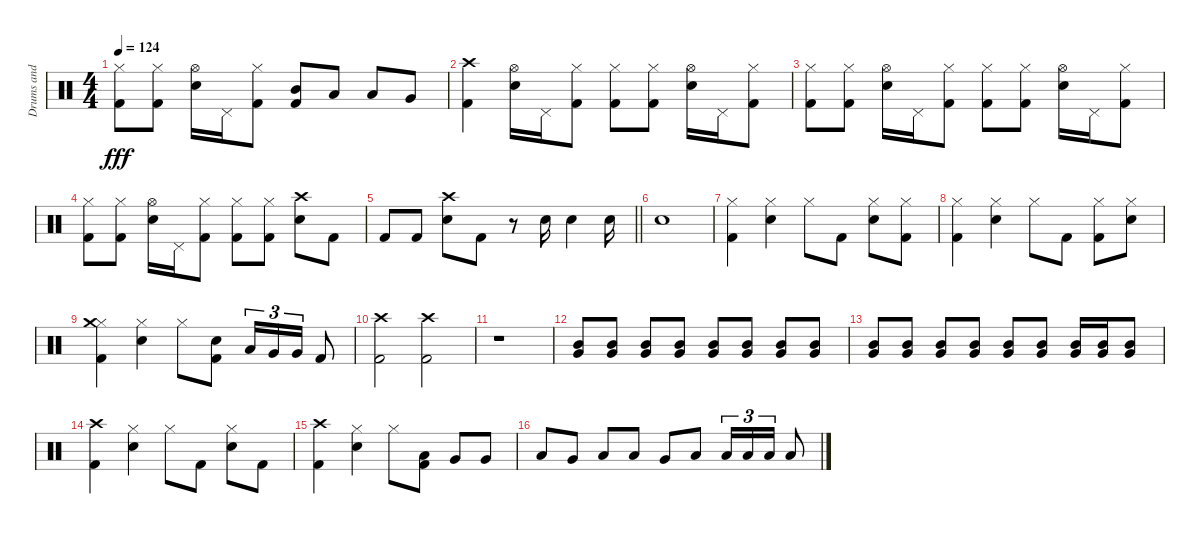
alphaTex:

\track ("Drums and percussion" "Drums and ") {instrument percussion}
\staff {score}
\articulation defaults
\ts (4 4)
\tempo 124
\clef neutral
\ks c
("Hi-Hat (closed)" "Kick (hit) 2").8{dy fff} ("Hi-Hat (closed)" "Kick (hit) 2").8 ("Hi-Hat (open)" "Snare (hit) 2").16 "Pedal Hi-Hat (hit)".16 ("Hi-Hat (closed)" "Kick (hit) 2").8 ("Mid Tom (hit)" "Kick (hit) 2").8 "Low Tom (hit)".8 "Low Tom (hit)".8 "Very Low Tom (hit)".8 |
("Crash high (hit)" "Kick (hit) 2").4 ("Hi-Hat (open)" "Snare (hit) 2").16 "Pedal Hi-Hat (hit)".16 ("Hi-Hat (closed)" "Kick (hit) 2").8 ("Hi-Hat (closed)" "Kick (hit) 2").8 ("Hi-Hat (closed)" "Kick (hit) 2").8 ("Hi-Hat (open)" "Snare (hit) 2").16 "Pedal Hi-Hat (hit)".16 ("Hi-Hat (closed)" "Kick (hit) 2").8 |
("Hi-Hat (closed)" "Kick (hit) 2").8 ("Hi-Hat (closed)" "Kick (hit) 2").8 ("Hi-Hat (open)" "Snare (hit) 2").16 "Pedal Hi-Hat (hit)".16 ("Hi-Hat (closed)" "Kick (hit) 2").8 ("Hi-Hat (closed)" "Kick (hit) 2").8 ("Hi-Hat (closed)" "Kick (hit) 2").8 ("Hi-Hat (open)" "Snare (hit) 2").16 "Pedal Hi-Hat (hit)".16 ("Hi-Hat (closed)" "Kick (hit) 2").8 |
("Hi-Hat (closed)" "Kick (hit) 2").8 ("Hi-Hat (closed)" "Kick (hit) 2").8 ("Hi-Hat (open)" "Snare (hit) 2").16 "Pedal Hi-Hat (hit)".16 ("Hi-Hat (closed)" "Kick (hit) 2").8 ("Hi-Hat (closed)" "Kick (hit) 2").8 ("Hi-Hat (closed)" "Kick (hit) 2").8 ("Crash high (hit)" "Snare (hit) 2").8 "Kick (hit) 2".8 |
\barLineRight lightlight "Kick (hit) 2".8 "Kick (hit) 2".8
("Crash high (hit)" "Snare (hit) 2").8 "Kick (hit) 2".8 r.8 "Snare (hit) 2".16 "Snare (hit) 2".4 "Snare (hit) 2".16 |
"Snare (hit) 2".1 |
("Hi-Hat (closed)" "Kick (hit) 2").4 ("Hi-Hat (closed)" "Snare (hit) 2").4 "Hi-Hat (closed)".8 "Kick (hit) 2".8 ("Hi-Hat (closed)" "Snare (hit) 2").8 ("Hi-Hat (closed)" "Kick (hit) 2").8 |
("Hi-Hat (closed)" "Kick (hit) 2").4 ("Hi-Hat (closed)" "Snare (hit) 2").4 "Hi-Hat (closed)".8 "Kick (hit) 2".8 ("Hi-Hat (closed)" "Kick (hit) 2").8 ("Hi-Hat (closed)" "Snare (hit) 2").8 |
("Hi-Hat (closed)" "Crash medium (hit)" "Kick (hit) 2").4 ("Hi-Hat (closed)" "Snare (hit) 2").4 "Hi-Hat (closed)".8 ("Snare (hit) 2" "Kick (hit) 2").8 "Low Tom (hit)".16{tu (3 2)} "Very Low Tom (hit)".16{tu (3 2)} "Very Low Tom (hit)".16{tu (3 2)} "Kick (hit) 2".8 |
("Crash high (hit)" "Kick (hit) 2").2 ("Crash high (hit)" "Kick (hit) 2").2 |
r.1 |
("Mid Tom (hit)" "Very Low Tom (hit)").8 ("Mid Tom (hit)" "Very Low Tom (hit)").8 ("Mid Tom (hit)" "Very Low Tom (hit)").8 ("Mid Tom (hit)" "Very Low Tom (hit)").8 ("Mid Tom (hit)" "Very Low Tom (hit)").8 ("Mid Tom (hit)" "Very Low Tom (hit)").8 ("Mid Tom (hit)" "Very Low Tom (hit)").8 ("Mid Tom (hit)" "Very Low Tom (hit)").8 |
("Mid Tom (hit)" "Very Low Tom (hit)").8 ("Mid Tom (hit)" "Very Low Tom (hit)").8 ("Mid Tom (hit)" "Very Low Tom (hit)").8 ("Mid Tom (hit)" "Very Low Tom (hit)").8 ("Mid Tom (hit)" "Very Low Tom (hit)").8 ("Mid Tom (hit)" "Very Low Tom (hit)").8 ("Mid Tom (hit)" "Very Low Tom (hit)").16 ("Mid Tom (hit)" "Very Low Tom (hit)").16 ("Mid Tom (hit)" "Very Low Tom (hit)").8 |
("Crash high (hit)" "Kick (hit) 2").4 ("Hi-Hat (closed)" "Snare (hit) 2").4 "Hi-Hat (closed)".8 "Kick (hit) 2".8 ("Hi-Hat (closed)" "Snare (hit) 2").8 "Kick (hit) 2".8 |
("Crash high (hit)" "Kick (hit) 2").4 ("Hi-Hat (closed)" "Snare (hit) 2").4 "Hi-Hat (closed)".8 ("Low Tom (hit)" "Kick (hit) 2").8 "Very Low Tom (hit)".8 "Very Low Tom (hit)".8 |
"Low Tom (hit)".8 "Very Low Tom (hit)".8 "Low Floor Tom (hit)".8 "Low Tom (hit)".8 "Very Low Tom (hit)".8 "Low Floor Tom (hit)".8 "Low Tom (hit)".16{tu (3 2)} "Low Tom (hit)".16{tu (3 2)} "Low Tom (hit)".16{tu (3 2)} "Low Floor Tom (hit)".8
